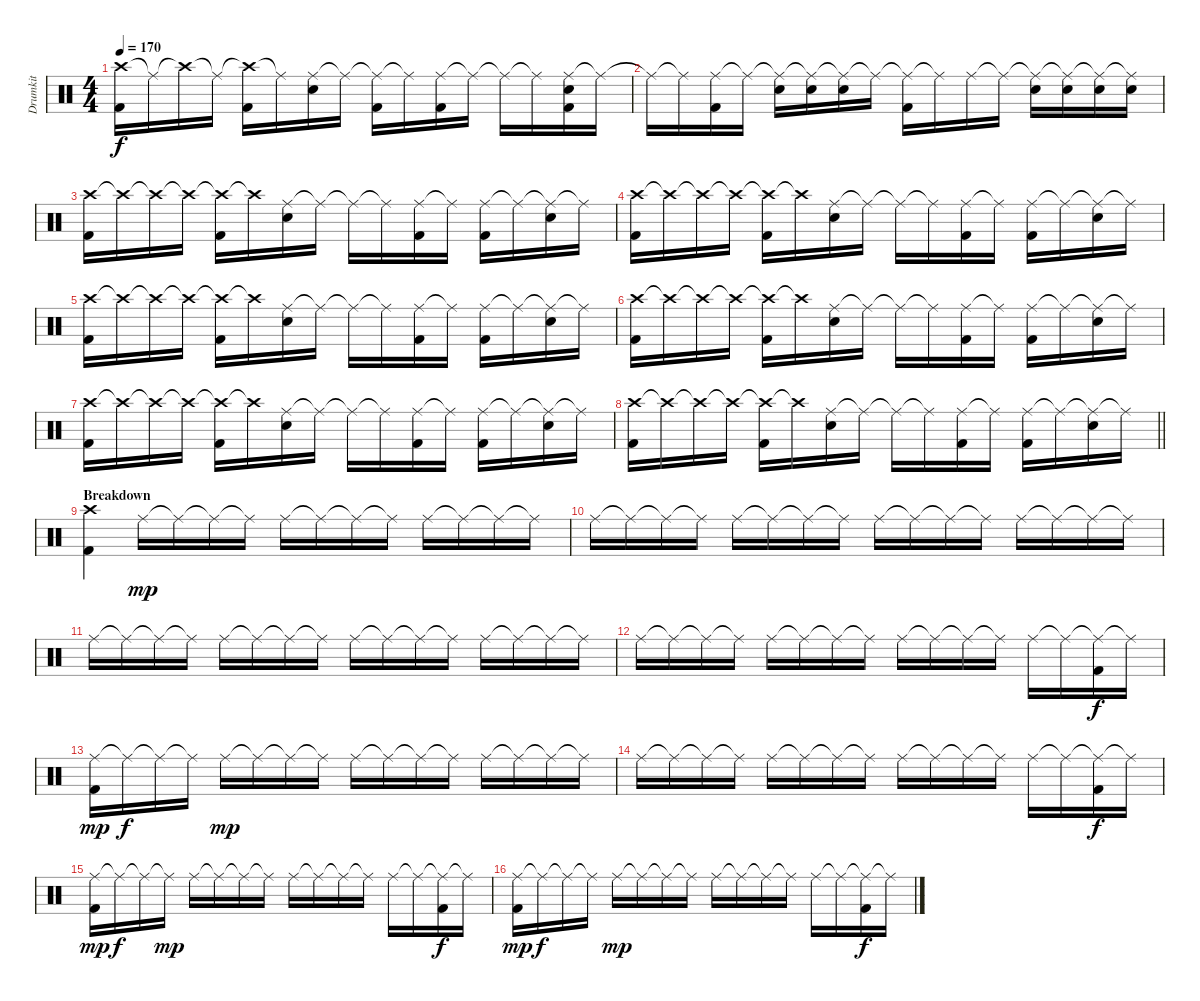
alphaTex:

\track ("Drumkit" "Drumkit") {instrument percussion}
\staff {score}
\articulation defaults
\ts (4 4)
\tempo 170
\clef neutral
\ks c
("Crash high (hit)" "Kick (hit) 2").16{dy f} "Ride (middle)"{t}.16 "Crash high (hit)"{t}.16 "Ride (middle)"{t}.16 ("Crash high (hit)"{t} "Kick (hit) 2").16 "Ride (middle)"{t}.16 ("Ride (middle)" "Snare (hit) 2").16 "Ride (middle)"{t}.16 ("Ride (middle)"{t} "Kick (hit) 2").16 "Ride (middle)"{t}.16 ("Ride (middle)" "Kick (hit) 2").16 "Ride (middle)"{t}.16 "Ride (middle)"{t}.16 "Ride (middle)"{t}.16 ("Ride (middle)" "Snare (hit) 2" "Kick (hit) 2").16 "Ride (middle)"{t}.16 |
"Ride (middle)"{t}.16 "Ride (middle)"{t}.16 ("Ride (middle)" "Kick (hit) 2").16 "Ride (middle)"{t}.16 ("Ride (middle)"{t} "Snare (hit) 2").16 ("Ride (middle)"{t} "Snare (hit) 2").16 ("Ride (middle)"{t} "Snare (hit) 2").16 "Ride (middle)"{t}.16 ("Ride (middle)"{t} "Kick (hit) 2").16 "Ride (middle)"{t}.16 "Ride (middle)".16 "Ride (middle)"{t}.16 ("Ride (middle)"{t} "Snare (hit) 2").16 ("Ride (middle)"{t} "Snare (hit) 2").16 ("Ride (middle)"{t} "Snare (hit) 2").16 ("Ride (middle)"{t} "Snare (hit) 2").16 |
("Crash high (hit)" "Kick (hit) 2").16 "Crash high (hit)"{t}.16 "Crash high (hit)"{t}.16 "Crash high (hit)"{t}.16 ("Crash high (hit)"{t} "Kick (hit) 2").16 "Crash high (hit)"{t}.16 ("Ride (middle)" "Snare (hit) 2").16 "Ride (middle)"{t}.16 "Ride (middle)"{t}.16 "Ride (middle)"{t}.16 ("Ride (middle)" "Kick (hit) 2").16 "Ride (middle)"{t}.16 ("Ride (middle)" "Kick (hit) 2").16 "Ride (middle)"{t}.16 ("Ride (middle)"{t} "Snare (hit) 2").16 "Ride (middle)"{t}.16 |
("Crash high (hit)" "Kick (hit) 2").16 "Crash high (hit)"{t}.16 "Crash high (hit)"{t}.16 "Crash high (hit)"{t}.16 ("Crash high (hit)"{t} "Kick (hit) 2").16 "Crash high (hit)"{t}.16 ("Ride (middle)" "Snare (hit) 2").16 "Ride (middle)"{t}.16 "Ride (middle)"{t}.16 "Ride (middle)"{t}.16 ("Ride (middle)" "Kick (hit) 2").16 "Ride (middle)"{t}.16 ("Ride (middle)" "Kick (hit) 2").16 "Ride (middle)"{t}.16 ("Ride (middle)"{t} "Snare (hit) 2").16 "Ride (middle)"{t}.16 |
("Crash high (hit)" "Kick (hit) 2").16 "Crash high (hit)"{t}.16 "Crash high (hit)"{t}.16 "Crash high (hit)"{t}.16 ("Crash high (hit)"{t} "Kick (hit) 2").16 "Crash high (hit)"{t}.16 ("Ride (middle)" "Snare (hit) 2").16 "Ride (middle)"{t}.16 "Ride (middle)"{t}.16 "Ride (middle)"{t}.16 ("Ride (middle)" "Kick (hit) 2").16 "Ride (middle)"{t}.16 ("Ride (middle)" "Kick (hit) 2").16 "Ride (middle)"{t}.16 ("Ride (middle)"{t} "Snare (hit) 2").16 "Ride (middle)"{t}.16 |
("Crash high (hit)" "Kick (hit) 2").16 "Crash high (hit)"{t}.16 "Crash high (hit)"{t}.16 "Crash high (hit)"{t}.16 ("Crash high (hit)"{t} "Kick (hit) 2").16 "Crash high (hit)"{t}.16 ("Ride (middle)" "Snare (hit) 2").16 "Ride (middle)"{t}.16 "Ride (middle)"{t}.16 "Ride (middle)"{t}.16 ("Ride (middle)" "Kick (hit) 2").16 "Ride (middle)"{t}.16 ("Ride (middle)" "Kick (hit) 2").16 "Ride (middle)"{t}.16 ("Ride (middle)"{t} "Snare (hit) 2").16 "Ride (middle)"{t}.16 |
("Crash high (hit)" "Kick (hit) 2").16 "Crash high (hit)"{t}.16 "Crash high (hit)"{t}.16 "Crash high (hit)"{t}.16 ("Crash high (hit)"{t} "Kick (hit) 2").16 "Crash high (hit)"{t}.16 ("Ride (middle)" "Snare (hit) 2").16 "Ride (middle)"{t}.16 "Ride (middle)"{t}.16 "Ride (middle)"{t}.16 ("Ride (middle)" "Kick (hit) 2").16 "Ride (middle)"{t}.16 ("Ride (middle)" "Kick (hit) 2").16 "Ride (middle)"{t}.16 ("Ride (middle)"{t} "Snare (hit) 2").16 "Ride (middle)"{t}.16 |
\barLineRight lightlight
("Crash high (hit)" "Kick (hit) 2").16 "Crash high (hit)"{t}.16 "Crash high (hit)"{t}.16 "Crash high (hit)"{t}.16 ("Crash high (hit)"{t} "Kick (hit) 2").16 "Crash high (hit)"{t}.16 ("Ride (middle)" "Snare (hit) 2").16 "Ride (middle)"{t}.16 "Ride (middle)"{t}.16 "Ride (middle)"{t}.16 ("Ride (middle)" "Kick (hit) 2").16 "Ride (middle)"{t}.16 ("Ride (middle)" "Kick (hit) 2").16 "Ride (middle)"{t}.16 ("Ride (middle)"{t} "Snare (hit) 2").16 "Ride (middle)"{t}.16 |
\section ("" "Breakdown")
("Crash high (hit)" "Kick (hit) 2").4 "Ride (middle)".16{dy mp} "Ride (middle)"{t}.16 "Ride (middle)"{t}.16 "Ride (middle)"{t}.16 "Ride (middle)".16 "Ride (middle)"{t}.16 "Ride (middle)"{t}.16 "Ride (middle)"{t}.16 "Ride (middle)".16 "Ride (middle)"{t}.16 "Ride (middle)"{t}.16 "Ride (middle)"{t}.16 |
"Ride (middle)".16 "Ride (middle)"{t}.16 "Ride (middle)"{t}.16 "Ride (middle)"{t}.16 "Ride (middle)".16 "Ride (middle)"{t}.16 "Ride (middle)"{t}.16 "Ride (middle)"{t}.16 "Ride (middle)".16 "Ride (middle)"{t}.16 "Ride (middle)"{t}.16 "Ride (middle)"{t}.16 "Ride (middle)".16 "Ride (middle)"{t}.16 "Ride (middle)"{t}.16 "Ride (middle)"{t}.16 |
"Ride (middle)".16 "Ride (middle)"{t}.16 "Ride (middle)"{t}.16 "Ride (middle)"{t}.16 "Ride (middle)".16 "Ride (middle)"{t}.16 "Ride (middle)"{t}.16 "Ride (middle)"{t}.16 "Ride (middle)".16 "Ride (middle)"{t}.16 "Ride (middle)"{t}.16 "Ride (middle)"{t}.16 "Ride (middle)".16 "Ride (middle)"{t}.16 "Ride (middle)"{t}.16 "Ride (middle)"{t}.16 |
"Ride (middle)".16 "Ride (middle)"{t}.16 "Ride (middle)"{t}.16 "Ride (middle)"{t}.16 "Ride (middle)".16 "Ride (middle)"{t}.16 "Ride (middle)"{t}.16 "Ride (middle)"{t}.16 "Ride (middle)".16 "Ride (middle)"{t}.16 "Ride (middle)"{t}.16 "Ride (middle)"{t}.16 "Ride (middle)".16 "Ride (middle)"{t}.16 ("Ride (middle)"{t} "Kick (hit) 2").16{dy f} "Ride (middle)"{t}.16 |
("Ride (middle)" "Kick (hit) 2").16{dy mp} "Ride (middle)"{t}.16{dy f} "Ride (middle)"{t}.16 "Ride (middle)"{t}.16 "Ride (middle)".16{dy mp} "Ride (middle)"{t}.16 "Ride (middle)"{t}.16 "Ride (middle)"{t}.16 "Ride (middle)".16 "Ride (middle)"{t}.16 "Ride (middle)"{t}.16 "Ride (middle)"{t}.16 "Ride (middle)".16 "Ride (middle)"{t}.16 "Ride (middle)"{t}.16 "Ride (middle)"{t}.16 |
"Ride (middle)".16 "Ride (middle)"{t}.16 "Ride (middle)"{t}.16 "Ride (middle)"{t}.16 "Ride (middle)".16 "Ride (middle)"{t}.16 "Ride (middle)"{t}.16 "Ride (middle)"{t}.16 "Ride (middle)".16 "Ride (middle)"{t}.16 "Ride (middle)"{t}.16 "Ride (middle)"{t}.16 "Ride (middle)".16 "Ride (middle)"{t}.16 ("Ride (middle)"{t} "Kick (hit) 2").16{dy f} "Ride (middle)"{t}.16 |
("Ride (middle)" "Kick (hit) 2").16{dy mp} "Ride (middle)"{t}.16{dy f} "Ride (middle)"{t}.16 "Ride (middle)"{t}.16{dy mp} "Ride (middle)".16 "Ride (middle)"{t}.16 "Ride (middle)"{t}.16 "Ride (middle)"{t}.16 "Ride (middle)".16 "Ride (middle)"{t}.16 "Ride (middle)"{t}.16 "Ride (middle)"{t}.16 "Ride (middle)".16 "Ride (middle)"{t}.16 ("Ride (middle)"{t} "Kick (hit) 2").16{dy f} "Ride (middle)"{t}.16 |
("Ride (middle)" "Kick (hit) 2").16{dy mp} "Ride (middle)"{t}.16{dy f} "Ride (middle)"{t}.16 "Ride (middle)"{t}.16 "Ride (middle)".16{dy mp} "Ride (middle)"{t}.16 "Ride (middle)"{t}.16 "Ride (middle)"{t}.16 "Ride (middle)".16 "Ride (middle)"{t}.16 "Ride (middle)"{t}.16 "Ride (middle)"{t}.16 "Ride (middle)".16 "Ride (middle)"{t}.16 ("Ride (middle)"{t} "Kick (hit) 2").16{dy f} "Ride (middle)"{t}.16
